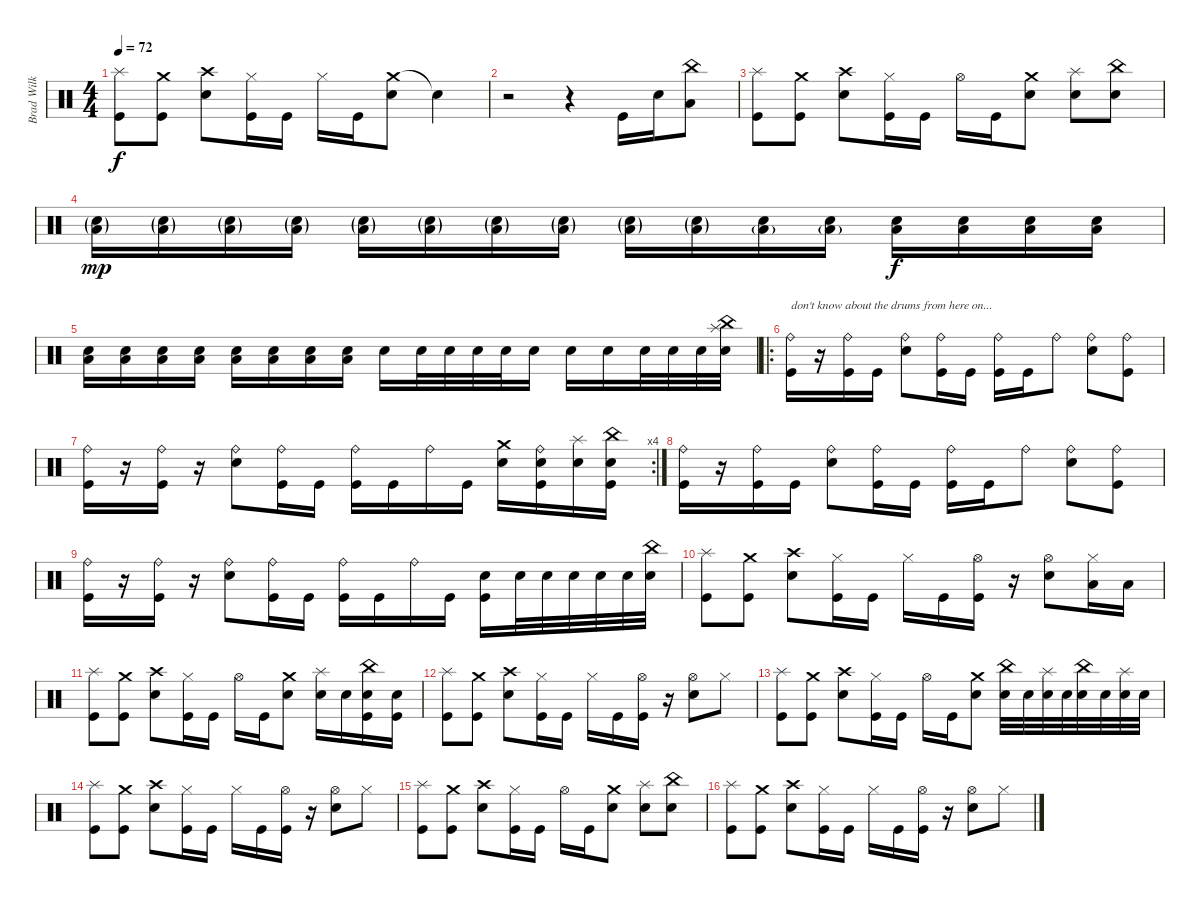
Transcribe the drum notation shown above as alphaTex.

\track ("Brad Wilk (Drums)" "Brad Wilk ") {mute instrument percussion}
\staff {score}
\articulation defaults
\ts (4 4)
\tempo 72
\clef neutral
\ks c
("Splash (hit)" "Kick (hit)").8{dy f} ("Crash medium (hit)" "Kick (hit)").8 ("Crash high (hit)" "Snare (hit) 2").8 ("Hi-Hat (closed)" "Kick (hit)").16 "Kick (hit)".16 "Hi-Hat (closed)".16 "Kick (hit)".16 ("Crash medium (hit)" "Snare (hit) 2").8 "Snare (hit)"{t}.4 |
r.2 r.4 "Kick (hit)".16 "Snare (hit) 2".16 ("China (hit)" "Low Tom (hit)").8 |
("Splash (hit)" "Kick (hit)").8 ("Crash medium (hit)" "Kick (hit)").8 ("Crash high (hit)" "Snare (hit) 2").8 ("Hi-Hat (closed)" "Kick (hit)").16 "Kick (hit)".16 "Hi-Hat (open)".16 "Kick (hit)".16 ("Crash medium (hit)" "Snare (hit) 2").8 ("Splash (hit)" "Snare (hit) 2").8 ("China (hit)" "Snare (hit) 2").8 |
("Snare (hit) 2"{g} "Low Floor Tom (hit)"{g}).16{dy mp volume 8} ("Snare (hit) 2"{g} "Low Floor Tom (hit)"{g}).16 ("Snare (hit) 2"{g} "Low Floor Tom (hit)"{g}).16 ("Snare (hit) 2"{g} "Low Floor Tom (hit)"{g}).16 ("Snare (hit) 2"{g} "Low Floor Tom (hit)"{g}).16{volume 10} ("Snare (hit) 2"{g} "Low Floor Tom (hit)"{g}).16 ("Snare (hit) 2"{g} "Low Floor Tom (hit)"{g}).16 ("Snare (hit) 2"{g} "Low Floor Tom (hit)"{g}).16 ("Snare (hit) 2"{g} "Low Floor Tom (hit)"{g}).16{volume 12} ("Snare (hit) 2"{g} "Low Floor Tom (hit)"{g}).16 ("Snare (hit) 2" "Low Floor Tom (hit)"{g}).16 ("Snare (hit) 2" "Low Floor Tom (hit)"{g}).16 ("Snare (hit) 2" "Low Floor Tom (hit)").16{dy f volume 14} ("Snare (hit) 2" "Low Floor Tom (hit)").16 ("Snare (hit) 2" "Low Floor Tom (hit)").16 ("Snare (hit) 2" "Low Floor Tom (hit)").16 |
("Snare (hit) 2" "Low Floor Tom (hit)").16{volume 16} ("Snare (hit) 2" "Low Floor Tom (hit)").16 ("Snare (hit) 2" "Low Floor Tom (hit)").16 ("Snare (hit) 2" "Low Floor Tom (hit)").16 ("Snare (hit) 2" "Low Floor Tom (hit)").16 ("Snare (hit) 2" "Low Floor Tom (hit)").16 ("Snare (hit) 2" "Low Floor Tom (hit)").16 ("Snare (hit) 2" "Low Floor Tom (hit)").16 "Snare (hit) 2".16 "Snare (hit) 2".32 "Snare (hit) 2".32 "Snare (hit) 2".32 "Snare (hit) 2".32 "Snare (hit) 2".16 "Snare (hit) 2".16 "Snare (hit) 2".16 "Snare (hit) 2".32 "Snare (hit) 2".32 "Snare (hit) 2".32 ("China (hit)" "Snare (hit) 2" "Splash (hit)").32 |
\ro
("Ride (bell)" "Kick (hit)").16{txt "don't know about the drums from here on..."} r.16 ("Ride (bell)" "Kick (hit)").16 "Kick (hit)".16 ("Ride (bell)" "Snare (hit) 2").8 ("Ride (bell)" "Kick (hit)").16 "Kick (hit)".16 ("Ride (bell)" "Kick (hit)").16 "Kick (hit)".16 "Ride (bell)".8 ("Ride (bell)" "Snare (hit) 2").8 ("Ride (bell)" "Kick (hit)").8 |
\rc 4
("Ride (bell)" "Kick (hit)").16 r.16 ("Ride (bell)" "Kick (hit)").16 r.16 ("Ride (bell)" "Snare (hit) 2").8 ("Ride (bell)" "Kick (hit)").16 "Kick (hit)".16 ("Ride (bell)" "Kick (hit)").16 "Kick (hit)".16 "Ride (bell)".16 "Kick (hit)".16 ("Crash medium (hit)" "Snare (hit) 2").16 ("Ride (bell)" "Snare (hit) 2" "Kick (hit)").16 ("Splash (hit)" "Snare (hit) 2").16 ("China (hit)" "Snare (hit) 2" "Kick (hit)").16 |
("Ride (bell)" "Kick (hit)").16 r.16 ("Ride (bell)" "Kick (hit)").16 "Kick (hit)".16 ("Ride (bell)" "Snare (hit) 2").8 ("Ride (bell)" "Kick (hit)").16 "Kick (hit)".16 ("Ride (bell)" "Kick (hit)").16 "Kick (hit)".16 "Ride (bell)".8 ("Ride (bell)" "Snare (hit) 2").8 ("Ride (bell)" "Kick (hit)").8 |
("Ride (bell)" "Kick (hit)").16 r.16 ("Ride (bell)" "Kick (hit)").16 r.16 ("Ride (bell)" "Snare (hit) 2").8 ("Ride (bell)" "Kick (hit)").16 "Kick (hit)".16 ("Ride (bell)" "Kick (hit)").16 "Kick (hit)".16 "Ride (bell)".16 "Kick (hit)".16 ("Snare (hit) 2" "Kick (hit)").16 "Snare (hit) 2".32 "Snare (hit) 2".32 "Snare (hit) 2".32 "Snare (hit) 2".32 "Snare (hit) 2".32 ("China (hit)" "Snare (hit) 2").32 |
("Splash (hit)" "Kick (hit)").8 ("Crash medium (hit)" "Kick (hit)").8 ("Crash high (hit)" "Snare (hit) 2").8 ("Hi-Hat (closed)" "Kick (hit)").16 "Kick (hit)".16 "Hi-Hat (closed)".16 "Kick (hit)".16 ("Hi-Hat (open)" "Kick (hit)").16 r.16 ("Hi-Hat (open)" "Snare (hit) 2").8 ("Hi-Hat (closed)" "Low Floor Tom (hit)").16 "Low Floor Tom (hit)".16 |
("Splash (hit)" "Kick (hit)").8 ("Crash medium (hit)" "Kick (hit)").8 ("Crash high (hit)" "Snare (hit) 2").8 ("Hi-Hat (closed)" "Kick (hit)").16 "Kick (hit)".16 "Hi-Hat (open)".16 "Kick (hit)".16 ("Crash medium (hit)" "Snare (hit) 2").8 ("Splash (hit)" "Snare (hit) 2").16 "Snare (hit) 2".16 ("China (hit)" "Snare (hit) 2" "Kick (hit)").16 ("Snare (hit) 2" "Kick (hit)").16 |
("Splash (hit)" "Kick (hit)").8 ("Crash medium (hit)" "Kick (hit)").8 ("Crash high (hit)" "Snare (hit) 2").8 ("Hi-Hat (closed)" "Kick (hit)").16 "Kick (hit)".16 "Hi-Hat (closed)".16 "Kick (hit)".16 ("Hi-Hat (open)" "Kick (hit)").16 r.16 ("Hi-Hat (open)" "Snare (hit) 2").8 "Hi-Hat (closed)".8 |
("Splash (hit)" "Kick (hit)").8 ("Crash medium (hit)" "Kick (hit)").8 ("Crash high (hit)" "Snare (hit) 2").8 ("Hi-Hat (closed)" "Kick (hit)").16 "Kick (hit)".16 "Hi-Hat (open)".16 "Kick (hit)".16 ("Crash medium (hit)" "Snare (hit) 2").8 ("China (hit)" "Snare (hit) 2").32 "Snare (hit) 2".32 ("Splash (hit)" "Snare (hit) 2").32 "Snare (hit) 2".32 ("China (hit)" "Snare (hit) 2").32 "Snare (hit) 2".32 ("Splash (hit)" "Snare (hit) 2").32 "Snare (hit) 2".32 |
("Splash (hit)" "Kick (hit)").8 ("Crash medium (hit)" "Kick (hit)").8 ("Crash high (hit)" "Snare (hit) 2").8 ("Hi-Hat (closed)" "Kick (hit)").16 "Kick (hit)".16 "Hi-Hat (closed)".16 "Kick (hit)".16 ("Hi-Hat (open)" "Kick (hit)").16 r.16 ("Hi-Hat (open)" "Snare (hit) 2").8 "Hi-Hat (closed)".8 |
("Splash (hit)" "Kick (hit)").8 ("Crash medium (hit)" "Kick (hit)").8 ("Crash high (hit)" "Snare (hit) 2").8 ("Hi-Hat (closed)" "Kick (hit)").16 "Kick (hit)".16 "Hi-Hat (open)".16 "Kick (hit)".16 ("Crash medium (hit)" "Snare (hit) 2").8 ("Splash (hit)" "Snare (hit) 2").8 ("China (hit)" "Snare (hit) 2").8 |
("Splash (hit)" "Kick (hit)").8 ("Crash medium (hit)" "Kick (hit)").8 ("Crash high (hit)" "Snare (hit) 2").8 ("Hi-Hat (closed)" "Kick (hit)").16 "Kick (hit)".16 "Hi-Hat (closed)".16 "Kick (hit)".16 ("Hi-Hat (open)" "Kick (hit)").16 r.16 ("Hi-Hat (open)" "Snare (hit) 2").8 "Hi-Hat (closed)".8
